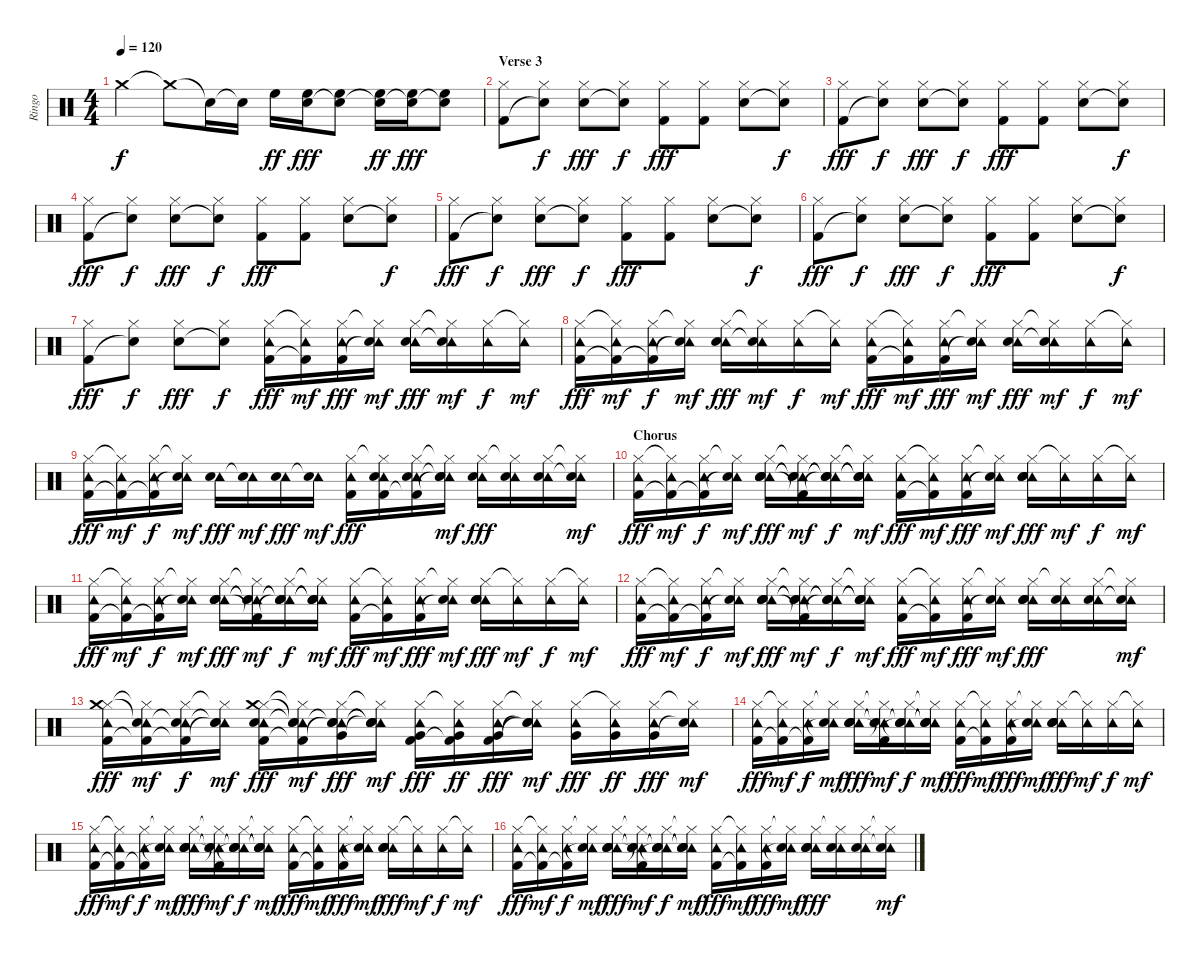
\track ("Ringo" "Ringo") {instrument percussion}
\staff {score}
\articulation defaults
\ts (4 4)
\tempo 120
\clef neutral
\ks c "Crash medium (hit)"{t}.4{dy f} "Crash medium (hit)"{t}.8 "Snare (hit)"{t}.16 "Snare (hit)"{t}.16 "High Floor Tom (hit)".16{dy ff}
("High Floor Tom (hit)" "Snare (hit)"{t}).16{dy fff} ("High Floor Tom (hit)" "Snare (hit)"{t}).8 ("High Floor Tom (hit)" "Snare (hit)"{t}).16{dy ff} ("High Floor Tom (hit)" "Snare (hit)"{t}).16{dy fff} ("High Floor Tom (hit)" "Snare (hit)"{t}).8 |
\section ("" "Verse 3")
("Hi-Hat (closed)" "Kick (hit) 2").8 ("Hi-Hat (closed)" "Snare (hit)"{t}).8{dy f} ("Hi-Hat (closed)" "Electric Snare (hit)").8{dy fff} ("Hi-Hat (closed)" "Snare (hit)"{t}).8{dy f} ("Hi-Hat (closed)" "Kick (hit) 2").8{dy fff} ("Hi-Hat (closed)" "Kick (hit) 2").8 ("Hi-Hat (closed)" "Electric Snare (hit)").8 ("Hi-Hat (closed)" "Snare (hit)"{t}).8{dy f} |
("Hi-Hat (closed)" "Kick (hit) 2").8{dy fff} ("Hi-Hat (closed)" "Snare (hit)"{t}).8{dy f} ("Hi-Hat (closed)" "Electric Snare (hit)").8{dy fff} ("Hi-Hat (closed)" "Snare (hit)"{t}).8{dy f} ("Hi-Hat (closed)" "Kick (hit) 2").8{dy fff} ("Hi-Hat (closed)" "Kick (hit) 2").8 ("Hi-Hat (closed)" "Electric Snare (hit)").8 ("Hi-Hat (closed)" "Snare (hit)"{t}).8{dy f} |
("Hi-Hat (closed)" "Kick (hit) 2").8{dy fff} ("Hi-Hat (closed)" "Snare (hit)"{t}).8{dy f} ("Hi-Hat (closed)" "Electric Snare (hit)").8{dy fff} ("Hi-Hat (closed)" "Snare (hit)"{t}).8{dy f} ("Hi-Hat (closed)" "Kick (hit) 2").8{dy fff} ("Hi-Hat (closed)" "Kick (hit) 2").8 ("Hi-Hat (closed)" "Electric Snare (hit)").8 ("Hi-Hat (closed)" "Snare (hit)"{t}).8{dy f} |
("Hi-Hat (closed)" "Kick (hit) 2").8{dy fff} ("Hi-Hat (closed)" "Snare (hit)"{t}).8{dy f} ("Hi-Hat (closed)" "Electric Snare (hit)").8{dy fff} ("Hi-Hat (closed)" "Snare (hit)"{t}).8{dy f} ("Hi-Hat (closed)" "Kick (hit) 2").8{dy fff} ("Hi-Hat (closed)" "Kick (hit) 2").8 ("Hi-Hat (closed)" "Electric Snare (hit)").8 ("Hi-Hat (closed)" "Snare (hit)"{t}).8{dy f} |
("Hi-Hat (closed)" "Kick (hit) 2").8{dy fff} ("Hi-Hat (closed)" "Snare (hit)"{t}).8{dy f} ("Hi-Hat (closed)" "Electric Snare (hit)").8{dy fff} ("Hi-Hat (closed)" "Snare (hit)"{t}).8{dy f} ("Hi-Hat (closed)" "Kick (hit) 2").8{dy fff} ("Hi-Hat (closed)" "Kick (hit) 2").8 ("Hi-Hat (closed)" "Electric Snare (hit)").8 ("Hi-Hat (closed)" "Snare (hit)"{t}).8{dy f} |
("Hi-Hat (closed)" "Kick (hit) 2").8{dy fff} ("Hi-Hat (closed)" "Snare (hit)"{t}).8{dy f} ("Hi-Hat (closed)" "Electric Snare (hit)").8{dy fff} ("Hi-Hat (closed)" "Snare (hit)"{t}).8{dy f} ("Tambourine (hit)" "Hi-Hat (closed)" "Kick (hit) 2").16{dy fff} ("Tambourine (hit)" "Hi-Hat (closed)"{t} "Kick (hit) 2"{t}).16{dy mf} ("Tambourine (hit)" "Hi-Hat (closed)" "Kick (hit) 2").16{dy fff} ("Tambourine (hit)" "Hi-Hat (closed)"{t} "Snare (hit)"{t}).16{dy mf} ("Tambourine (hit)" "Hi-Hat (closed)" "Electric Snare (hit)").16{dy fff} ("Tambourine (hit)" "Hi-Hat (closed)"{t} "Snare (hit)"{t}).16{dy mf} ("Tambourine (hit)" "Hi-Hat (closed)").16{dy f} ("Tambourine (hit)" "Hi-Hat (closed)"{t}).16{dy mf} |
("Tambourine (hit)" "Hi-Hat (closed)" "Kick (hit) 2").16{dy fff} ("Tambourine (hit)" "Hi-Hat (closed)"{t} "Kick (hit) 2"{t}).16{dy mf} ("Tambourine (hit)" "Hi-Hat (closed)" "Kick (hit) 2"{t}).16{dy f} ("Tambourine (hit)" "Hi-Hat (closed)"{t} "Snare (hit)"{t}).16{dy mf} ("Tambourine (hit)" "Hi-Hat (closed)" "Electric Snare (hit)").16{dy fff} ("Tambourine (hit)" "Hi-Hat (closed)"{t} "Snare (hit)"{t}).16{dy mf} ("Tambourine (hit)" "Hi-Hat (closed)").16{dy f} ("Tambourine (hit)" "Hi-Hat (closed)"{t}).16{dy mf} ("Tambourine (hit)" "Hi-Hat (closed)" "Kick (hit) 2").16{dy fff} ("Tambourine (hit)" "Hi-Hat (closed)"{t} "Kick (hit) 2"{t}).16{dy mf} ("Tambourine (hit)" "Hi-Hat (closed)" "Kick (hit) 2").16{dy fff} ("Tambourine (hit)" "Hi-Hat (closed)"{t} "Snare (hit)"{t}).16{dy mf} ("Tambourine (hit)" "Hi-Hat (closed)" "Electric Snare (hit)").16{dy fff} ("Tambourine (hit)" "Hi-Hat (closed)"{t} "Snare (hit)"{t}).16{dy mf} ("Tambourine (hit)" "Hi-Hat (closed)").16{dy f} ("Tambourine (hit)" "Hi-Hat (closed)"{t}).16{dy mf} |
("Tambourine (hit)" "Hi-Hat (closed)" "Kick (hit) 2").16{dy fff} ("Tambourine (hit)" "Hi-Hat (closed)"{t} "Kick (hit) 2"{t}).16{dy mf} ("Tambourine (hit)" "Hi-Hat (closed)" "Kick (hit) 2"{t}).16{dy f} ("Tambourine (hit)" "Hi-Hat (closed)"{t} "Snare (hit)"{t}).16{dy mf} ("Tambourine (hit)" "Electric Snare (hit)").16{dy fff} ("Tambourine (hit)" "Snare (hit)"{t}).16{dy mf} ("Tambourine (hit)" "Electric Snare (hit)").16{dy fff} ("Tambourine (hit)" "Snare (hit)"{t}).16{dy mf} ("Tambourine (hit)" "Hi-Hat (closed)" "Kick (hit) 2").16{dy fff} ("Tambourine (hit)" "Hi-Hat (closed)"{t} "Electric Snare (hit)" "Kick (hit) 2").16 ("Tambourine (hit)" "Hi-Hat (closed)" "Electric Snare (hit)" "Kick (hit) 2"{t}).16 ("Tambourine (hit)" "Hi-Hat (closed)"{t} "Snare (hit)"{t} "Snare (hit)"{t}).16{dy mf} ("Tambourine (hit)" "Hi-Hat (closed)" "Electric Snare (hit)").16{dy fff} ("Tambourine (hit)" "Hi-Hat (closed)"{t} "Electric Snare (hit)").16 ("Tambourine (hit)" "Hi-Hat (closed)" "Electric Snare (hit)").16 ("Tambourine (hit)" "Hi-Hat (closed)"{t} "Snare (hit)"{t}).16{dy mf} |
\section ("" "Chorus")
("Tambourine (hit)" "Hi-Hat (closed)" "Kick (hit) 2").16{dy fff} ("Tambourine (hit)" "Hi-Hat (closed)"{t} "Kick (hit) 2"{t}).16{dy mf} ("Tambourine (hit)" "Hi-Hat (closed)" "Kick (hit) 2"{t}).16{dy f} ("Tambourine (hit)" "Hi-Hat (closed)"{t} "Snare (hit)"{t}).16{dy mf} ("Tambourine (hit)" "Hi-Hat (closed)" "Electric Snare (hit)" "Hand Clap (hit)" "Hand Clap (hit)").16{dy fff} ("Tambourine (hit)" "Hi-Hat (closed)"{t} "Snare (hit)"{t} "Kick (hit) 2"{t} "Snare (hit)"{t}).16{dy mf} ("Tambourine (hit)" "Hi-Hat (closed)" "Electric Snare (hit)"{t} "Snare (hit)"{t} "Hand Clap (hit)"{t}).16{dy f} ("Tambourine (hit)" "Hi-Hat (closed)"{t} "Snare (hit)"{t} "Snare (hit)"{t} "Snare (hit)"{t}).16{dy mf} ("Tambourine (hit)" "Hi-Hat (closed)" "Kick (hit) 2").16{dy fff} ("Tambourine (hit)" "Hi-Hat (closed)"{t} "Kick (hit) 2"{t}).16{dy mf} ("Tambourine (hit)" "Hi-Hat (closed)" "Kick (hit) 2").16{dy fff} ("Tambourine (hit)" "Hi-Hat (closed)"{t} "Snare (hit)"{t}).16{dy mf} ("Tambourine (hit)" "Hi-Hat (closed)" "Electric Snare (hit)" "Hand Clap (hit)" "Hand Clap (hit)").16{dy fff} ("Tambourine (hit)" "Hi-Hat (closed)"{t}).16{dy mf} ("Tambourine (hit)" "Hi-Hat (closed)").16{dy f} ("Tambourine (hit)" "Hi-Hat (closed)"{t}).16{dy mf} |
("Tambourine (hit)" "Hi-Hat (closed)" "Kick (hit) 2").16{dy fff} ("Tambourine (hit)" "Hi-Hat (closed)"{t} "Kick (hit) 2"{t}).16{dy mf} ("Tambourine (hit)" "Hi-Hat (closed)" "Kick (hit) 2"{t}).16{dy f} ("Tambourine (hit)" "Hi-Hat (closed)"{t} "Snare (hit)"{t}).16{dy mf} ("Tambourine (hit)" "Hi-Hat (closed)" "Electric Snare (hit)" "Hand Clap (hit)" "Hand Clap (hit)").16{dy fff} ("Tambourine (hit)" "Hi-Hat (closed)"{t} "Snare (hit)"{t} "Kick (hit) 2"{t} "Snare (hit)"{t}).16{dy mf} ("Tambourine (hit)" "Hi-Hat (closed)" "Electric Snare (hit)"{t} "Snare (hit)"{t} "Hand Clap (hit)"{t}).16{dy f} ("Tambourine (hit)" "Hi-Hat (closed)"{t} "Snare (hit)"{t} "Snare (hit)"{t} "Snare (hit)"{t}).16{dy mf} ("Tambourine (hit)" "Hi-Hat (closed)" "Kick (hit) 2").16{dy fff} ("Tambourine (hit)" "Hi-Hat (closed)"{t} "Kick (hit) 2"{t}).16{dy mf} ("Tambourine (hit)" "Hi-Hat (closed)" "Kick (hit) 2").16{dy fff} ("Tambourine (hit)" "Hi-Hat (closed)"{t} "Snare (hit)"{t}).16{dy mf} ("Tambourine (hit)" "Hi-Hat (closed)" "Electric Snare (hit)" "Hand Clap (hit)" "Hand Clap (hit)").16{dy fff} ("Tambourine (hit)" "Hi-Hat (closed)"{t}).16{dy mf} ("Tambourine (hit)" "Hi-Hat (closed)").16{dy f} ("Tambourine (hit)" "Hi-Hat (closed)"{t}).16{dy mf} |
("Tambourine (hit)" "Hi-Hat (closed)" "Kick (hit) 2").16{dy fff} ("Tambourine (hit)" "Hi-Hat (closed)"{t} "Kick (hit) 2"{t}).16{dy mf} ("Tambourine (hit)" "Hi-Hat (closed)" "Kick (hit) 2"{t}).16{dy f} ("Tambourine (hit)" "Hi-Hat (closed)"{t} "Snare (hit)"{t}).16{dy mf} ("Tambourine (hit)" "Hi-Hat (closed)" "Electric Snare (hit)" "Hand Clap (hit)" "Hand Clap (hit)").16{dy fff} ("Tambourine (hit)" "Hi-Hat (closed)"{t} "Snare (hit)"{t} "Kick (hit) 2"{t} "Snare (hit)"{t}).16{dy mf} ("Tambourine (hit)" "Hi-Hat (closed)" "Electric Snare (hit)"{t} "Snare (hit)"{t} "Hand Clap (hit)"{t}).16{dy f} ("Tambourine (hit)" "Hi-Hat (closed)"{t} "Snare (hit)"{t} "Snare (hit)"{t} "Snare (hit)"{t}).16{dy mf} ("Tambourine (hit)" "Hi-Hat (closed)" "Kick (hit) 2").16{dy fff} ("Tambourine (hit)" "Hi-Hat (closed)"{t} "Kick (hit) 2"{t}).16{dy mf} ("Tambourine (hit)" "Hi-Hat (closed)" "Kick (hit) 2").16{dy fff} ("Tambourine (hit)" "Hi-Hat (closed)"{t} "Snare (hit)"{t}).16{dy mf} ("Tambourine (hit)" "Hi-Hat (closed)" "Electric Snare (hit)" "Hand Clap (hit)" "Hand Clap (hit)").16{dy fff} ("Tambourine (hit)" "Hi-Hat (closed)"{t} "Electric Snare (hit)").16 ("Tambourine (hit)" "Hi-Hat (closed)" "Electric Snare (hit)").16 ("Tambourine (hit)" "Hi-Hat (closed)"{t} "Snare (hit)"{t}).16{dy mf} |
("Tambourine (hit)" "Hi-Hat (closed)" "Kick (hit) 2" "Crash medium (hit)").16{dy fff} ("Tambourine (hit)" "Hi-Hat (closed)"{t} "Kick (hit) 2"{t} "Snare (hit)"{t}).16{dy mf} ("Tambourine (hit)" "Hi-Hat (closed)" "Kick (hit) 2"{t} "Snare (hit)"{t}).16{dy f} ("Tambourine (hit)" "Hi-Hat (closed)"{t} "Snare (hit)"{t} "Snare (hit)"{t}).16{dy mf} ("Tambourine (hit)" "Hi-Hat (closed)" "Electric Snare (hit)" "Kick (hit) 2" "Crash medium (hit)").16{dy fff} ("Tambourine (hit)" "Hi-Hat (closed)"{t} "Snare (hit)"{t} "Kick (hit) 2"{t} "Snare (hit)"{t}).16{dy mf} ("Tambourine (hit)" "Hi-Hat (closed)" "Very Low Tom (hit)" "Snare (hit)"{t} "Snare (hit)"{t}).16{dy fff} ("Tambourine (hit)" "Hi-Hat (closed)"{t} "Snare (hit)"{t} "Snare (hit)"{t} "Snare (hit)"{t}).16{dy mf} ("Tambourine (hit)" "Hi-Hat (closed)" "Very Low Tom (hit)" "Kick (hit) 2").16{dy fff} ("Tambourine (hit)" "Hi-Hat (closed)"{t} "Very Low Tom (hit)" "Kick (hit) 2"{t}).16{dy ff} ("Tambourine (hit)" "Hi-Hat (closed)" "Very Low Tom (hit)" "Kick (hit) 2").16{dy fff} ("Tambourine (hit)" "Hi-Hat (closed)"{t} "Snare (hit)"{t} "Snare (hit)"{t}).16{dy mf} ("Tambourine (hit)" "Hi-Hat (closed)" "Very Low Tom (hit)").16{dy fff} ("Tambourine (hit)" "Hi-Hat (closed)"{t} "Very Low Tom (hit)").16{dy ff} ("Tambourine (hit)" "Hi-Hat (closed)" "Very Low Tom (hit)").16{dy fff} ("Tambourine (hit)" "Hi-Hat (closed)"{t} "Snare (hit)"{t}).16{dy mf} |
("Tambourine (hit)" "Hi-Hat (closed)" "Kick (hit) 2").16{dy fff} ("Tambourine (hit)" "Hi-Hat (closed)"{t} "Kick (hit) 2"{t}).16{dy mf} ("Tambourine (hit)" "Hi-Hat (closed)" "Kick (hit) 2"{t}).16{dy f} ("Tambourine (hit)" "Hi-Hat (closed)"{t} "Snare (hit)"{t}).16{dy mf} ("Tambourine (hit)" "Hi-Hat (closed)" "Electric Snare (hit)" "Hand Clap (hit)" "Hand Clap (hit)").16{dy fff} ("Tambourine (hit)" "Hi-Hat (closed)"{t} "Snare (hit)"{t} "Kick (hit) 2"{t} "Snare (hit)"{t}).16{dy mf} ("Tambourine (hit)" "Hi-Hat (closed)" "Electric Snare (hit)"{t} "Snare (hit)"{t} "Hand Clap (hit)"{t}).16{dy f} ("Tambourine (hit)" "Hi-Hat (closed)"{t} "Snare (hit)"{t} "Snare (hit)"{t} "Snare (hit)"{t}).16{dy mf} ("Tambourine (hit)" "Hi-Hat (closed)" "Kick (hit) 2").16{dy fff} ("Tambourine (hit)" "Hi-Hat (closed)"{t} "Kick (hit) 2"{t}).16{dy mf} ("Tambourine (hit)" "Hi-Hat (closed)" "Kick (hit) 2").16{dy fff} ("Tambourine (hit)" "Hi-Hat (closed)"{t} "Snare (hit)"{t}).16{dy mf} ("Tambourine (hit)" "Hi-Hat (closed)" "Electric Snare (hit)" "Hand Clap (hit)" "Hand Clap (hit)").16{dy fff} ("Tambourine (hit)" "Hi-Hat (closed)"{t}).16{dy mf} ("Tambourine (hit)" "Hi-Hat (closed)").16{dy f} ("Tambourine (hit)" "Hi-Hat (closed)"{t}).16{dy mf} |
("Tambourine (hit)" "Hi-Hat (closed)" "Kick (hit) 2").16{dy fff} ("Tambourine (hit)" "Hi-Hat (closed)"{t} "Kick (hit) 2"{t}).16{dy mf} ("Tambourine (hit)" "Hi-Hat (closed)" "Kick (hit) 2"{t}).16{dy f} ("Tambourine (hit)" "Hi-Hat (closed)"{t} "Snare (hit)"{t}).16{dy mf} ("Tambourine (hit)" "Hi-Hat (closed)" "Electric Snare (hit)" "Hand Clap (hit)" "Hand Clap (hit)").16{dy fff} ("Tambourine (hit)" "Hi-Hat (closed)"{t} "Snare (hit)"{t} "Kick (hit) 2"{t} "Snare (hit)"{t}).16{dy mf} ("Tambourine (hit)" "Hi-Hat (closed)" "Electric Snare (hit)"{t} "Snare (hit)"{t} "Hand Clap (hit)"{t}).16{dy f} ("Tambourine (hit)" "Hi-Hat (closed)"{t} "Snare (hit)"{t} "Snare (hit)"{t} "Snare (hit)"{t}).16{dy mf} ("Tambourine (hit)" "Hi-Hat (closed)" "Kick (hit) 2").16{dy fff} ("Tambourine (hit)" "Hi-Hat (closed)"{t} "Kick (hit) 2"{t}).16{dy mf} ("Tambourine (hit)" "Hi-Hat (closed)" "Kick (hit) 2").16{dy fff} ("Tambourine (hit)" "Hi-Hat (closed)"{t} "Snare (hit)"{t}).16{dy mf} ("Tambourine (hit)" "Hi-Hat (closed)" "Electric Snare (hit)" "Hand Clap (hit)" "Hand Clap (hit)").16{dy fff} ("Tambourine (hit)" "Hi-Hat (closed)"{t}).16{dy mf} ("Tambourine (hit)" "Hi-Hat (closed)").16{dy f} ("Tambourine (hit)" "Hi-Hat (closed)"{t}).16{dy mf} |
("Tambourine (hit)" "Hi-Hat (closed)" "Kick (hit) 2").16{dy fff} ("Tambourine (hit)" "Hi-Hat (closed)"{t} "Kick (hit) 2"{t}).16{dy mf} ("Tambourine (hit)" "Hi-Hat (closed)" "Kick (hit) 2"{t}).16{dy f} ("Tambourine (hit)" "Hi-Hat (closed)"{t} "Snare (hit)"{t}).16{dy mf} ("Tambourine (hit)" "Hi-Hat (closed)" "Electric Snare (hit)" "Hand Clap (hit)" "Hand Clap (hit)").16{dy fff} ("Tambourine (hit)" "Hi-Hat (closed)"{t} "Snare (hit)"{t} "Kick (hit) 2"{t} "Snare (hit)"{t}).16{dy mf} ("Tambourine (hit)" "Hi-Hat (closed)" "Electric Snare (hit)"{t} "Snare (hit)"{t} "Hand Clap (hit)"{t}).16{dy f} ("Tambourine (hit)" "Hi-Hat (closed)"{t} "Snare (hit)"{t} "Snare (hit)"{t} "Snare (hit)"{t}).16{dy mf} ("Tambourine (hit)" "Hi-Hat (closed)" "Kick (hit) 2").16{dy fff} ("Tambourine (hit)" "Hi-Hat (closed)"{t} "Kick (hit) 2"{t}).16{dy mf} ("Tambourine (hit)" "Hi-Hat (closed)" "Kick (hit) 2").16{dy fff} ("Tambourine (hit)" "Hi-Hat (closed)"{t} "Snare (hit)"{t}).16{dy mf} ("Tambourine (hit)" "Hi-Hat (closed)" "Electric Snare (hit)" "Hand Clap (hit)" "Hand Clap (hit)").16{dy fff} ("Tambourine (hit)" "Hi-Hat (closed)"{t} "Electric Snare (hit)").16 ("Tambourine (hit)" "Hi-Hat (closed)" "Electric Snare (hit)").16 ("Tambourine (hit)" "Hi-Hat (closed)"{t} "Snare (hit)"{t}).16{dy mf}
